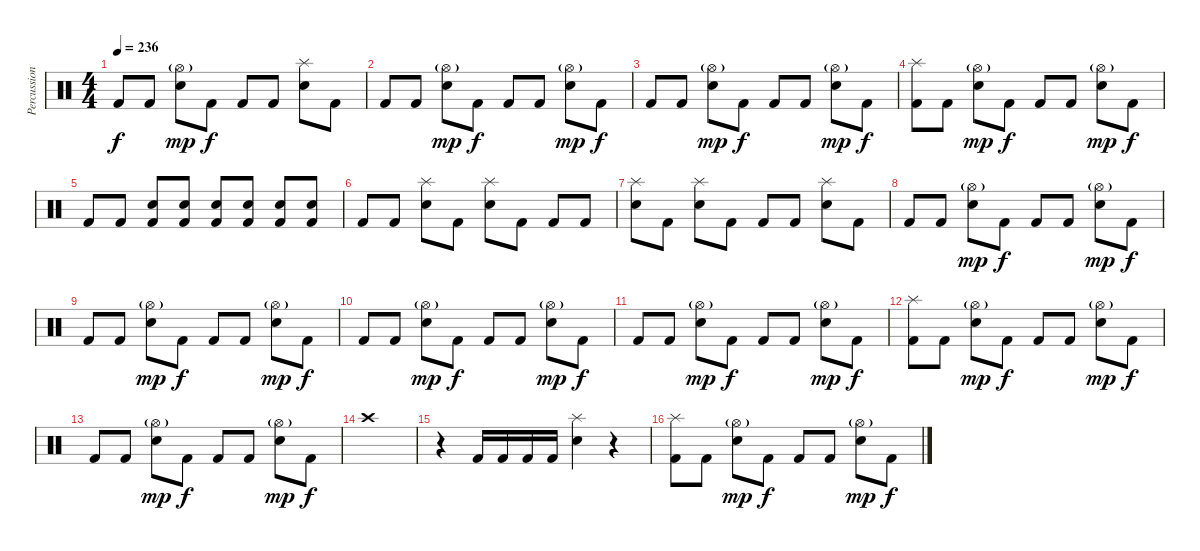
\track ("Percussion" "Percussion") {instrument percussion}
\staff {score}
\articulation defaults
\ts (4 4)
\tempo 236
\clef neutral
\ks c "Kick (hit) 2".8{dy f} "Kick (hit) 2".8
("Hi-Hat (open)"{g} "Electric Snare (hit)").8{dy mp} "Kick (hit) 2".8{dy f} "Kick (hit) 2".8 "Kick (hit) 2".8 ("Splash (hit)" "Electric Snare (hit)").8 "Kick (hit) 2".8 |
"Kick (hit) 2".8 "Kick (hit) 2".8 ("Hi-Hat (open)"{g} "Electric Snare (hit)").8{dy mp} "Kick (hit) 2".8{dy f} "Kick (hit) 2".8 "Kick (hit) 2".8 ("Hi-Hat (open)"{g} "Electric Snare (hit)").8{dy mp} "Kick (hit) 2".8{dy f} |
"Kick (hit) 2".8 "Kick (hit) 2".8 ("Hi-Hat (open)"{g} "Electric Snare (hit)").8{dy mp} "Kick (hit) 2".8{dy f} "Kick (hit) 2".8 "Kick (hit) 2".8 ("Hi-Hat (open)"{g} "Electric Snare (hit)").8{dy mp} "Kick (hit) 2".8{dy f} |
("Splash (hit)" "Kick (hit) 2").8 "Kick (hit) 2".8 ("Hi-Hat (open)"{g} "Electric Snare (hit)").8{dy mp} "Kick (hit) 2".8{dy f} "Kick (hit) 2".8 "Kick (hit) 2".8 ("Hi-Hat (open)"{g} "Electric Snare (hit)").8{dy mp} "Kick (hit) 2".8{dy f} |
"Kick (hit) 2".8 "Kick (hit) 2".8 ("Electric Snare (hit)" "Kick (hit) 2").8 ("Electric Snare (hit)" "Kick (hit) 2").8 ("Electric Snare (hit)" "Kick (hit) 2").8 ("Electric Snare (hit)" "Kick (hit) 2").8 ("Electric Snare (hit)" "Kick (hit) 2").8 ("Electric Snare (hit)" "Kick (hit) 2").8 |
"Kick (hit) 2".8 "Kick (hit) 2".8 ("Splash (hit)" "Electric Snare (hit)").8 "Kick (hit) 2".8 ("Splash (hit)" "Electric Snare (hit)").8 "Kick (hit) 2".8 "Kick (hit) 2".8 "Kick (hit) 2".8 |
("Splash (hit)" "Electric Snare (hit)").8 "Kick (hit) 2".8 ("Splash (hit)" "Electric Snare (hit)").8 "Kick (hit) 2".8 "Kick (hit) 2".8 "Kick (hit) 2".8 ("Splash (hit)" "Electric Snare (hit)").8 "Kick (hit) 2".8 |
"Kick (hit) 2".8 "Kick (hit) 2".8 ("Hi-Hat (open)"{g} "Electric Snare (hit)").8{dy mp} "Kick (hit) 2".8{dy f} "Kick (hit) 2".8 "Kick (hit) 2".8 ("Hi-Hat (open)"{g} "Electric Snare (hit)").8{dy mp} "Kick (hit) 2".8{dy f} |
"Kick (hit) 2".8 "Kick (hit) 2".8 ("Hi-Hat (open)"{g} "Electric Snare (hit)").8{dy mp} "Kick (hit) 2".8{dy f} "Kick (hit) 2".8 "Kick (hit) 2".8 ("Hi-Hat (open)"{g} "Electric Snare (hit)").8{dy mp} "Kick (hit) 2".8{dy f} |
"Kick (hit) 2".8 "Kick (hit) 2".8 ("Hi-Hat (open)"{g} "Electric Snare (hit)").8{dy mp} "Kick (hit) 2".8{dy f} "Kick (hit) 2".8 "Kick (hit) 2".8 ("Hi-Hat (open)"{g} "Electric Snare (hit)").8{dy mp} "Kick (hit) 2".8{dy f} |
"Kick (hit) 2".8 "Kick (hit) 2".8 ("Hi-Hat (open)"{g} "Electric Snare (hit)").8{dy mp} "Kick (hit) 2".8{dy f} "Kick (hit) 2".8 "Kick (hit) 2".8 ("Hi-Hat (open)"{g} "Electric Snare (hit)").8{dy mp} "Kick (hit) 2".8{dy f} |
("Splash (hit)" "Kick (hit) 2").8 "Kick (hit) 2".8 ("Hi-Hat (open)"{g} "Electric Snare (hit)").8{dy mp} "Kick (hit) 2".8{dy f} "Kick (hit) 2".8 "Kick (hit) 2".8 ("Hi-Hat (open)"{g} "Electric Snare (hit)").8{dy mp} "Kick (hit) 2".8{dy f} |
"Kick (hit) 2".8 "Kick (hit) 2".8 ("Hi-Hat (open)"{g} "Electric Snare (hit)").8{dy mp} "Kick (hit) 2".8{dy f} "Kick (hit) 2".8 "Kick (hit) 2".8 ("Hi-Hat (open)"{g} "Electric Snare (hit)").8{dy mp} "Kick (hit) 2".8{dy f} |
"Crash high (hit)".1 |
r.4 "Kick (hit) 2".16 "Kick (hit) 2".16 "Kick (hit) 2".16 "Kick (hit) 2".16 ("Splash (hit)" "Electric Snare (hit)").4 r.4 |
("Splash (hit)" "Kick (hit) 2").8 "Kick (hit) 2".8 ("Hi-Hat (open)"{g} "Electric Snare (hit)").8{dy mp} "Kick (hit) 2".8{dy f} "Kick (hit) 2".8 "Kick (hit) 2".8 ("Hi-Hat (open)"{g} "Electric Snare (hit)").8{dy mp} "Kick (hit) 2".8{dy f}
